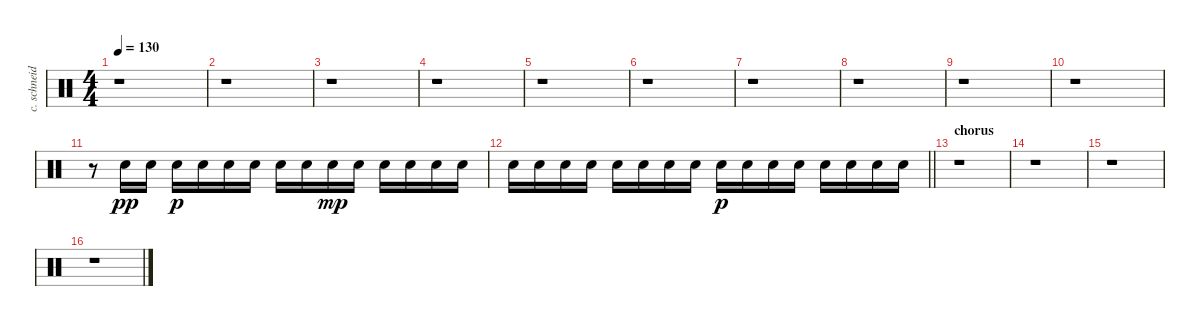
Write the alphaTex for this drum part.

\track ("c. schneider - percussion" "c. schneid") {instrument percussion}
\staff {score}
\articulation defaults
\ts (4 4)
\tempo 130
\clef neutral
\ks c
r.1{dy p} |
r.1 |
r.1 |
r.1 |
r.1 |
r.1 |
r.1 |
r.1 |
r.1 |
r.1 |
r.8 "Snare (hit) 2".16{dy pp} "Snare (hit) 2".16 "Snare (hit) 2".16{dy p} "Snare (hit) 2".16 "Snare (hit) 2".16 "Snare (hit) 2".16 "Snare (hit) 2".16 "Snare (hit) 2".16 "Snare (hit) 2".16{dy mp} "Snare (hit) 2".16 "Snare (hit) 2".16 "Snare (hit) 2".16 "Snare (hit) 2".16 "Snare (hit) 2".16 |
\barLineRight lightlight "Snare (hit) 2".16 "Snare (hit) 2".16 "Snare (hit) 2".16 "Snare (hit) 2".16 "Snare (hit) 2".16 "Snare (hit) 2".16 "Snare (hit) 2".16 "Snare (hit) 2".16 "Snare (hit) 2".16{dy p} "Snare (hit) 2".16 "Snare (hit) 2".16 "Snare (hit) 2".16 "Snare (hit) 2".16 "Snare (hit) 2".16 "Snare (hit) 2".16 "Snare (hit) 2".16
|
\section ("" "chorus")
r.1 |
r.1 |
r.1 |
r.1
